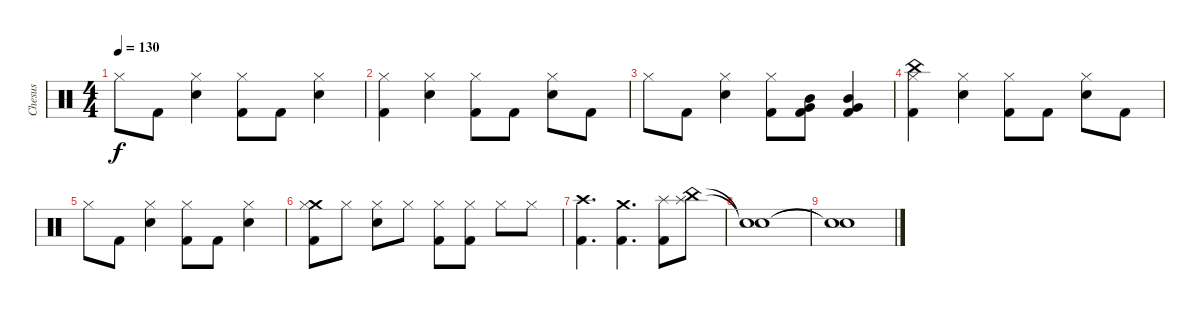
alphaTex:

\track ("Chesus" "Chesus") {instrument percussion}
\staff {score}
\articulation defaults
\ts (4 4)
\tempo 130
\clef neutral
\ks c "Hi-Hat (closed)".8{dy f} "Kick (hit) 2".8
("Hi-Hat (closed)" "Snare (hit) 2").4 ("Hi-Hat (closed)" "Kick (hit) 2").8 "Kick (hit) 2".8 ("Hi-Hat (closed)" "Snare (hit) 2").4 |
("Hi-Hat (closed)" "Kick (hit) 2").4 ("Hi-Hat (closed)" "Snare (hit) 2").4 ("Hi-Hat (closed)" "Kick (hit) 2").8 "Kick (hit) 2".8 ("Hi-Hat (closed)" "Snare (hit) 2").8 "Kick (hit) 2".8 |
"Hi-Hat (closed)".8 "Kick (hit) 2".8 ("Hi-Hat (closed)" "Snare (hit) 2").4 ("Hi-Hat (closed)" "Kick (hit) 2").8 ("Mid Tom (hit)" "Very Low Tom (hit)" "Kick (hit) 2").8 ("Mid Tom (hit)" "Very Low Tom (hit)" "Kick (hit) 2").4 |
("China (hit)" "Hi-Hat (closed)" "Kick (hit) 2").4 ("Hi-Hat (closed)" "Snare (hit) 2").4 ("Hi-Hat (closed)" "Kick (hit) 2").8 "Kick (hit) 2".8 ("Hi-Hat (closed)" "Snare (hit) 2").8 "Kick (hit) 2".8 |
"Hi-Hat (closed)".8 "Kick (hit) 2".8 ("Hi-Hat (closed)" "Snare (hit) 2").4 ("Hi-Hat (closed)" "Kick (hit) 2").8 "Kick (hit) 2".8 ("Hi-Hat (closed)" "Snare (hit) 2").4 |
("Crash medium (hit)" "Hi-Hat (closed)" "Kick (hit) 2").8 "Hi-Hat (closed)".8 ("Hi-Hat (closed)" "Snare (hit) 2").8 "Hi-Hat (closed)".8 ("Hi-Hat (closed)" "Kick (hit) 2").8 ("Hi-Hat (closed)" "Kick (hit) 2").8 "Hi-Hat (closed)".8 "Hi-Hat (closed)".8 |
("Crash high (hit)" "Kick (hit) 2").4{d} ("Crash medium (hit)" "Kick (hit) 2").4{d} ("Splash (hit)" "Kick (hit) 2").8 ("China (hit)" "Splash (hit)").8 |
("Snare (hit)"{t} "Snare (hit)"{t}).1 |
("Snare (hit)"{t} "Snare (hit)"{t}).1
